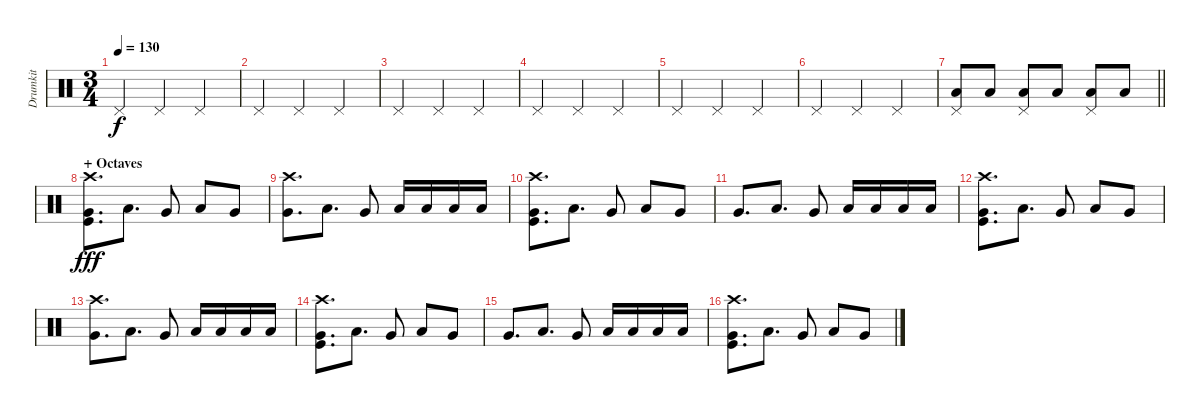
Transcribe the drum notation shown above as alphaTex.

\track ("Drumkit" "Drumkit") {instrument percussion}
\staff {score}
\articulation defaults
\ts (3 4)
\tempo 130
\clef neutral
\ks c "Pedal Hi-Hat (hit)".4{dy f} "Pedal Hi-Hat (hit)".4 "Pedal Hi-Hat (hit)".4
|
"Pedal Hi-Hat (hit)".4 "Pedal Hi-Hat (hit)".4 "Pedal Hi-Hat (hit)".4 |
"Pedal Hi-Hat (hit)".4 "Pedal Hi-Hat (hit)".4 "Pedal Hi-Hat (hit)".4 |
"Pedal Hi-Hat (hit)".4 "Pedal Hi-Hat (hit)".4 "Pedal Hi-Hat (hit)".4 |
"Pedal Hi-Hat (hit)".4 "Pedal Hi-Hat (hit)".4 "Pedal Hi-Hat (hit)".4 |
"Pedal Hi-Hat (hit)".4 "Pedal Hi-Hat (hit)".4 "Pedal Hi-Hat (hit)".4 |
\barLineRight lightlight
("Pedal Hi-Hat (hit)" "Low Tom (hit)").8 "Low Tom (hit)".8 ("Low Tom (hit)" "Pedal Hi-Hat (hit)").8 "Low Tom (hit)".8 ("Low Tom (hit)" "Pedal Hi-Hat (hit)").8 "Low Tom (hit)".8 |
\section ("" "+ Octaves")
("Very Low Tom (hit)" "Kick (hit)" "Crash high (hit)").8{d dy fff} "Low Tom (hit)".8{d} "Very Low Tom (hit)".8 "Low Tom (hit)".8 "Very Low Tom (hit)".8 |
("Very Low Tom (hit)" "Crash high (hit)").8{d} "Low Tom (hit)".8{d} "Very Low Tom (hit)".8 "Low Tom (hit)".16 "Low Tom (hit)".16 "Low Tom (hit)".16 "Low Tom (hit)".16 |
("Very Low Tom (hit)" "Kick (hit)" "Crash high (hit)").8{d} "Low Tom (hit)".8{d} "Very Low Tom (hit)".8 "Low Tom (hit)".8 "Very Low Tom (hit)".8 |
"Very Low Tom (hit)".8{d} "Low Tom (hit)".8{d} "Very Low Tom (hit)".8 "Low Tom (hit)".16 "Low Tom (hit)".16 "Low Tom (hit)".16 "Low Tom (hit)".16 |
("Very Low Tom (hit)" "Kick (hit)" "Crash high (hit)").8{d} "Low Tom (hit)".8{d} "Very Low Tom (hit)".8 "Low Tom (hit)".8 "Very Low Tom (hit)".8 |
("Very Low Tom (hit)" "Crash high (hit)").8{d} "Low Tom (hit)".8{d} "Very Low Tom (hit)".8 "Low Tom (hit)".16 "Low Tom (hit)".16 "Low Tom (hit)".16 "Low Tom (hit)".16 |
("Very Low Tom (hit)" "Kick (hit)" "Crash high (hit)").8{d} "Low Tom (hit)".8{d} "Very Low Tom (hit)".8 "Low Tom (hit)".8 "Very Low Tom (hit)".8 |
"Very Low Tom (hit)".8{d} "Low Tom (hit)".8{d} "Very Low Tom (hit)".8 "Low Tom (hit)".16 "Low Tom (hit)".16 "Low Tom (hit)".16 "Low Tom (hit)".16 |
("Very Low Tom (hit)" "Kick (hit)" "Crash high (hit)").8{d} "Low Tom (hit)".8{d} "Very Low Tom (hit)".8 "Low Tom (hit)".8 "Very Low Tom (hit)".8
